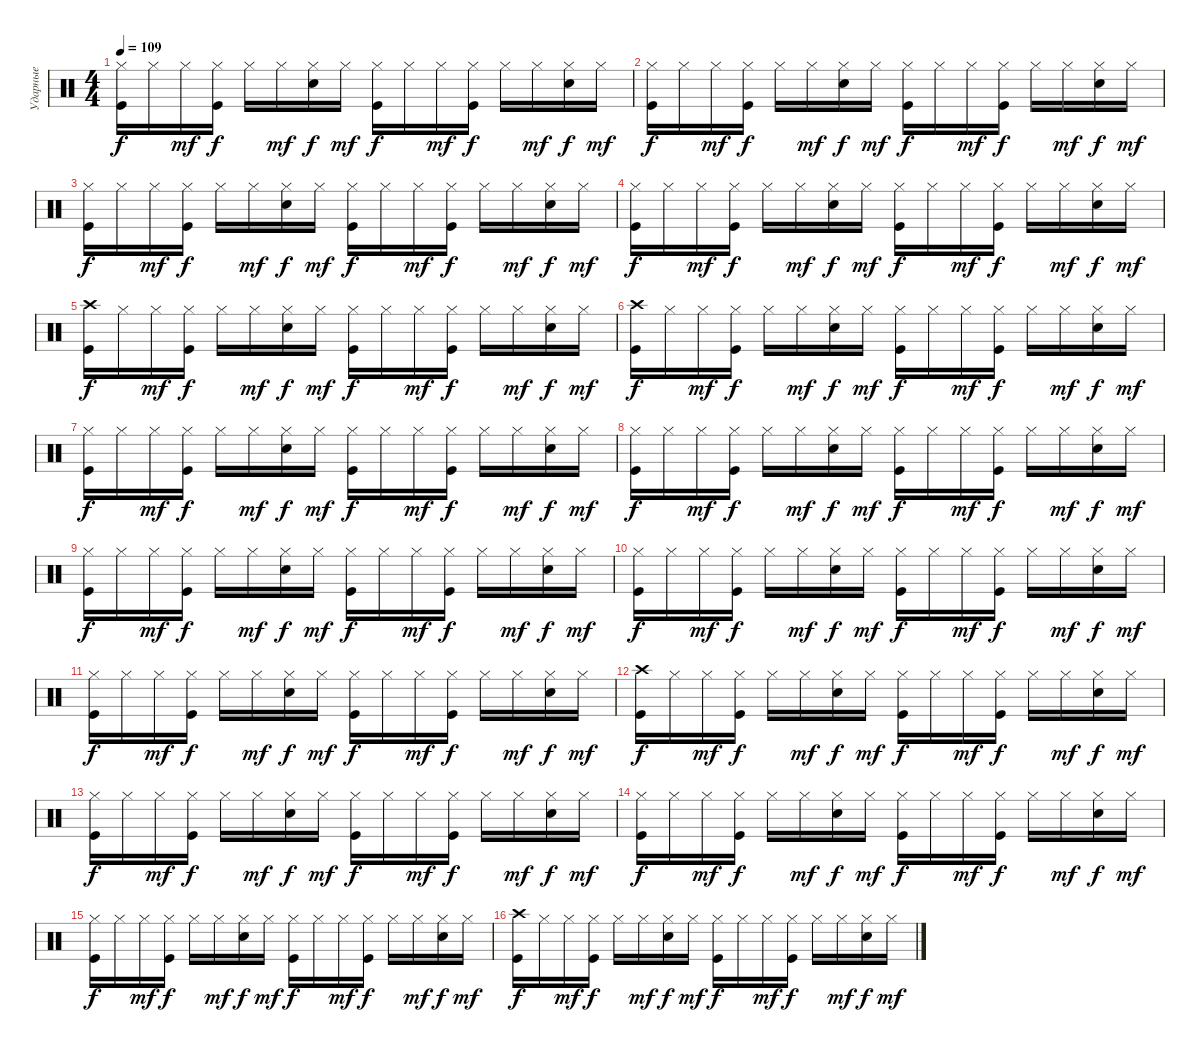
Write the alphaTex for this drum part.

\track ("Ударные" "Ударные") {instrument percussion}
\staff {score}
\articulation defaults
\ts (4 4)
\tempo 109
\clef neutral
\ks c
("Hi-Hat (closed)" "Kick (hit)").16{dy f} "Hi-Hat (closed)".16 "Hi-Hat (closed)".16{dy mf} ("Hi-Hat (closed)" "Kick (hit)").16{dy f} "Hi-Hat (closed)".16 "Hi-Hat (closed)".16{dy mf} ("Electric Snare (hit)" "Hi-Hat (closed)").16{dy f} "Hi-Hat (closed)".16{dy mf} ("Hi-Hat (closed)" "Kick (hit)").16{dy f} "Hi-Hat (closed)".16 "Hi-Hat (closed)".16{dy mf} ("Hi-Hat (closed)" "Kick (hit)").16{dy f} "Hi-Hat (closed)".16 "Hi-Hat (closed)".16{dy mf} ("Hi-Hat (closed)" "Electric Snare (hit)").16{dy f} "Hi-Hat (closed)".16{dy mf} |
("Kick (hit)" "Hi-Hat (closed)").16{dy f} "Hi-Hat (closed)".16 "Hi-Hat (closed)".16{dy mf} ("Kick (hit)" "Hi-Hat (closed)").16{dy f} "Hi-Hat (closed)".16 "Hi-Hat (closed)".16{dy mf} ("Hi-Hat (closed)" "Electric Snare (hit)").16{dy f} "Hi-Hat (closed)".16{dy mf} ("Hi-Hat (closed)" "Kick (hit)").16{dy f} "Hi-Hat (closed)".16 "Hi-Hat (closed)".16{dy mf} ("Kick (hit)" "Hi-Hat (closed)").16{dy f} "Hi-Hat (closed)".16 "Hi-Hat (closed)".16{dy mf} ("Electric Snare (hit)" "Hi-Hat (closed)").16{dy f} "Hi-Hat (closed)".16{dy mf} |
("Hi-Hat (closed)" "Kick (hit)").16{dy f} "Hi-Hat (closed)".16 "Hi-Hat (closed)".16{dy mf} ("Kick (hit)" "Hi-Hat (closed)").16{dy f} "Hi-Hat (closed)".16 "Hi-Hat (closed)".16{dy mf} ("Electric Snare (hit)" "Hi-Hat (closed)").16{dy f} "Hi-Hat (closed)".16{dy mf} ("Hi-Hat (closed)" "Kick (hit)").16{dy f} "Hi-Hat (closed)".16 "Hi-Hat (closed)".16{dy mf} ("Kick (hit)" "Hi-Hat (closed)").16{dy f} "Hi-Hat (closed)".16 "Hi-Hat (closed)".16{dy mf} ("Electric Snare (hit)" "Hi-Hat (closed)").16{dy f} "Hi-Hat (closed)".16{dy mf} |
("Hi-Hat (closed)" "Kick (hit)").16{dy f} "Hi-Hat (closed)".16 "Hi-Hat (closed)".16{dy mf} ("Kick (hit)" "Hi-Hat (closed)").16{dy f} "Hi-Hat (closed)".16 "Hi-Hat (closed)".16{dy mf} ("Electric Snare (hit)" "Hi-Hat (closed)").16{dy f} "Hi-Hat (closed)".16{dy mf} ("Kick (hit)" "Hi-Hat (closed)").16{dy f} "Hi-Hat (closed)".16 "Hi-Hat (closed)".16{dy mf} ("Kick (hit)" "Hi-Hat (closed)").16{dy f} "Hi-Hat (closed)".16 "Hi-Hat (closed)".16{dy mf} ("Hi-Hat (closed)" "Electric Snare (hit)").16{dy f} "Hi-Hat (closed)".16{dy mf} |
("Crash high (hit)" "Kick (hit)").16{dy f} "Hi-Hat (closed)".16 "Hi-Hat (closed)".16{dy mf} ("Kick (hit)" "Hi-Hat (closed)").16{dy f} "Hi-Hat (closed)".16 "Hi-Hat (closed)".16{dy mf} ("Hi-Hat (closed)" "Electric Snare (hit)").16{dy f} "Hi-Hat (closed)".16{dy mf} ("Hi-Hat (closed)" "Kick (hit)").16{dy f} "Hi-Hat (closed)".16 "Hi-Hat (closed)".16{dy mf} ("Hi-Hat (closed)" "Kick (hit)").16{dy f} "Hi-Hat (closed)".16 "Hi-Hat (closed)".16{dy mf} ("Hi-Hat (closed)" "Electric Snare (hit)").16{dy f} "Hi-Hat (closed)".16{dy mf} |
("Crash high (hit)" "Kick (hit)").16{dy f} "Hi-Hat (closed)".16 "Hi-Hat (closed)".16{dy mf} ("Kick (hit)" "Hi-Hat (closed)").16{dy f} "Hi-Hat (closed)".16 "Hi-Hat (closed)".16{dy mf} ("Electric Snare (hit)" "Hi-Hat (closed)").16{dy f} "Hi-Hat (closed)".16{dy mf} ("Kick (hit)" "Hi-Hat (closed)").16{dy f} "Hi-Hat (closed)".16 "Hi-Hat (closed)".16{dy mf} ("Kick (hit)" "Hi-Hat (closed)").16{dy f} "Hi-Hat (closed)".16 "Hi-Hat (closed)".16{dy mf} ("Electric Snare (hit)" "Hi-Hat (closed)").16{dy f} "Hi-Hat (closed)".16{dy mf} |
("Hi-Hat (closed)" "Kick (hit)").16{dy f} "Hi-Hat (closed)".16 "Hi-Hat (closed)".16{dy mf} ("Hi-Hat (closed)" "Kick (hit)").16{dy f} "Hi-Hat (closed)".16 "Hi-Hat (closed)".16{dy mf} ("Electric Snare (hit)" "Hi-Hat (closed)").16{dy f} "Hi-Hat (closed)".16{dy mf} ("Kick (hit)" "Hi-Hat (closed)").16{dy f} "Hi-Hat (closed)".16 "Hi-Hat (closed)".16{dy mf} ("Hi-Hat (closed)" "Kick (hit)").16{dy f} "Hi-Hat (closed)".16 "Hi-Hat (closed)".16{dy mf} ("Electric Snare (hit)" "Hi-Hat (closed)").16{dy f} "Hi-Hat (closed)".16{dy mf} |
("Hi-Hat (closed)" "Kick (hit)").16{dy f} "Hi-Hat (closed)".16 "Hi-Hat (closed)".16{dy mf} ("Kick (hit)" "Hi-Hat (closed)").16{dy f} "Hi-Hat (closed)".16 "Hi-Hat (closed)".16{dy mf} ("Hi-Hat (closed)" "Electric Snare (hit)").16{dy f} "Hi-Hat (closed)".16{dy mf} ("Hi-Hat (closed)" "Kick (hit)").16{dy f} "Hi-Hat (closed)".16 "Hi-Hat (closed)".16{dy mf} ("Hi-Hat (closed)" "Kick (hit)").16{dy f} "Hi-Hat (closed)".16 "Hi-Hat (closed)".16{dy mf} ("Electric Snare (hit)" "Hi-Hat (closed)").16{dy f} "Hi-Hat (closed)".16{dy mf} |
("Hi-Hat (closed)" "Kick (hit)").16{dy f} "Hi-Hat (closed)".16 "Hi-Hat (closed)".16{dy mf} ("Kick (hit)" "Hi-Hat (closed)").16{dy f} "Hi-Hat (closed)".16 "Hi-Hat (closed)".16{dy mf} ("Hi-Hat (closed)" "Electric Snare (hit)").16{dy f} "Hi-Hat (closed)".16{dy mf} ("Hi-Hat (closed)" "Kick (hit)").16{dy f} "Hi-Hat (closed)".16 "Hi-Hat (closed)".16{dy mf} ("Hi-Hat (closed)" "Kick (hit)").16{dy f} "Hi-Hat (closed)".16 "Hi-Hat (closed)".16{dy mf} ("Electric Snare (hit)" "Hi-Hat (closed)").16{dy f} "Hi-Hat (closed)".16{dy mf} |
("Hi-Hat (closed)" "Kick (hit)").16{dy f} "Hi-Hat (closed)".16 "Hi-Hat (closed)".16{dy mf} ("Hi-Hat (closed)" "Kick (hit)").16{dy f} "Hi-Hat (closed)".16 "Hi-Hat (closed)".16{dy mf} ("Electric Snare (hit)" "Hi-Hat (closed)").16{dy f} "Hi-Hat (closed)".16{dy mf} ("Kick (hit)" "Hi-Hat (closed)").16{dy f} "Hi-Hat (closed)".16 "Hi-Hat (closed)".16{dy mf} ("Hi-Hat (closed)" "Kick (hit)").16{dy f} "Hi-Hat (closed)".16 "Hi-Hat (closed)".16{dy mf} ("Electric Snare (hit)" "Hi-Hat (closed)").16{dy f} "Hi-Hat (closed)".16{dy mf} |
("Kick (hit)" "Hi-Hat (closed)").16{dy f} "Hi-Hat (closed)".16 "Hi-Hat (closed)".16{dy mf} ("Kick (hit)" "Hi-Hat (closed)").16{dy f} "Hi-Hat (closed)".16 "Hi-Hat (closed)".16{dy mf} ("Electric Snare (hit)" "Hi-Hat (closed)").16{dy f} "Hi-Hat (closed)".16{dy mf} ("Kick (hit)" "Hi-Hat (closed)").16{dy f} "Hi-Hat (closed)".16 "Hi-Hat (closed)".16{dy mf} ("Kick (hit)" "Hi-Hat (closed)").16{dy f} "Hi-Hat (closed)".16 "Hi-Hat (closed)".16{dy mf} ("Hi-Hat (closed)" "Electric Snare (hit)").16{dy f} "Hi-Hat (closed)".16{dy mf} |
("Kick (hit)" "Crash high (hit)").16{dy f} "Hi-Hat (closed)".16 "Hi-Hat (closed)".16{dy mf} ("Kick (hit)" "Hi-Hat (closed)").16{dy f} "Hi-Hat (closed)".16 "Hi-Hat (closed)".16{dy mf} ("Electric Snare (hit)" "Hi-Hat (closed)").16{dy f} "Hi-Hat (closed)".16{dy mf} ("Kick (hit)" "Hi-Hat (closed)").16{dy f} "Hi-Hat (closed)".16 "Hi-Hat (closed)".16{dy mf} ("Hi-Hat (closed)" "Kick (hit)").16{dy f} "Hi-Hat (closed)".16 "Hi-Hat (closed)".16{dy mf} ("Electric Snare (hit)" "Hi-Hat (closed)").16{dy f} "Hi-Hat (closed)".16{dy mf} |
("Kick (hit)" "Hi-Hat (closed)").16{dy f} "Hi-Hat (closed)".16 "Hi-Hat (closed)".16{dy mf} ("Kick (hit)" "Hi-Hat (closed)").16{dy f} "Hi-Hat (closed)".16 "Hi-Hat (closed)".16{dy mf} ("Hi-Hat (closed)" "Electric Snare (hit)").16{dy f} "Hi-Hat (closed)".16{dy mf} ("Hi-Hat (closed)" "Kick (hit)").16{dy f} "Hi-Hat (closed)".16 "Hi-Hat (closed)".16{dy mf} ("Kick (hit)" "Hi-Hat (closed)").16{dy f} "Hi-Hat (closed)".16 "Hi-Hat (closed)".16{dy mf} ("Hi-Hat (closed)" "Electric Snare (hit)").16{dy f} "Hi-Hat (closed)".16{dy mf} |
("Hi-Hat (closed)" "Kick (hit)").16{dy f} "Hi-Hat (closed)".16 "Hi-Hat (closed)".16{dy mf} ("Kick (hit)" "Hi-Hat (closed)").16{dy f} "Hi-Hat (closed)".16 "Hi-Hat (closed)".16{dy mf} ("Hi-Hat (closed)" "Electric Snare (hit)").16{dy f} "Hi-Hat (closed)".16{dy mf} ("Hi-Hat (closed)" "Kick (hit)").16{dy f} "Hi-Hat (closed)".16 "Hi-Hat (closed)".16{dy mf} ("Kick (hit)" "Hi-Hat (closed)").16{dy f} "Hi-Hat (closed)".16 "Hi-Hat (closed)".16{dy mf} ("Electric Snare (hit)" "Hi-Hat (closed)").16{dy f} "Hi-Hat (closed)".16{dy mf} |
("Kick (hit)" "Hi-Hat (closed)").16{dy f} "Hi-Hat (closed)".16 "Hi-Hat (closed)".16{dy mf} ("Hi-Hat (closed)" "Kick (hit)").16{dy f} "Hi-Hat (closed)".16 "Hi-Hat (closed)".16{dy mf} ("Hi-Hat (closed)" "Electric Snare (hit)").16{dy f} "Hi-Hat (closed)".16{dy mf} ("Hi-Hat (closed)" "Kick (hit)").16{dy f} "Hi-Hat (closed)".16 "Hi-Hat (closed)".16{dy mf} ("Kick (hit)" "Hi-Hat (closed)").16{dy f} "Hi-Hat (closed)".16 "Hi-Hat (closed)".16{dy mf} ("Hi-Hat (closed)" "Electric Snare (hit)").16{dy f} "Hi-Hat (closed)".16{dy mf} |
("Kick (hit)" "Crash high (hit)").16{dy f} "Hi-Hat (closed)".16 "Hi-Hat (closed)".16{dy mf} ("Hi-Hat (closed)" "Kick (hit)").16{dy f} "Hi-Hat (closed)".16 "Hi-Hat (closed)".16{dy mf} ("Hi-Hat (closed)" "Electric Snare (hit)").16{dy f} "Hi-Hat (closed)".16{dy mf} ("Hi-Hat (closed)" "Kick (hit)").16{dy f} "Hi-Hat (closed)".16 "Hi-Hat (closed)".16{dy mf} ("Kick (hit)" "Hi-Hat (closed)").16{dy f} "Hi-Hat (closed)".16 "Hi-Hat (closed)".16{dy mf} ("Electric Snare (hit)" "Hi-Hat (closed)").16{dy f} "Hi-Hat (closed)".16{dy mf}
